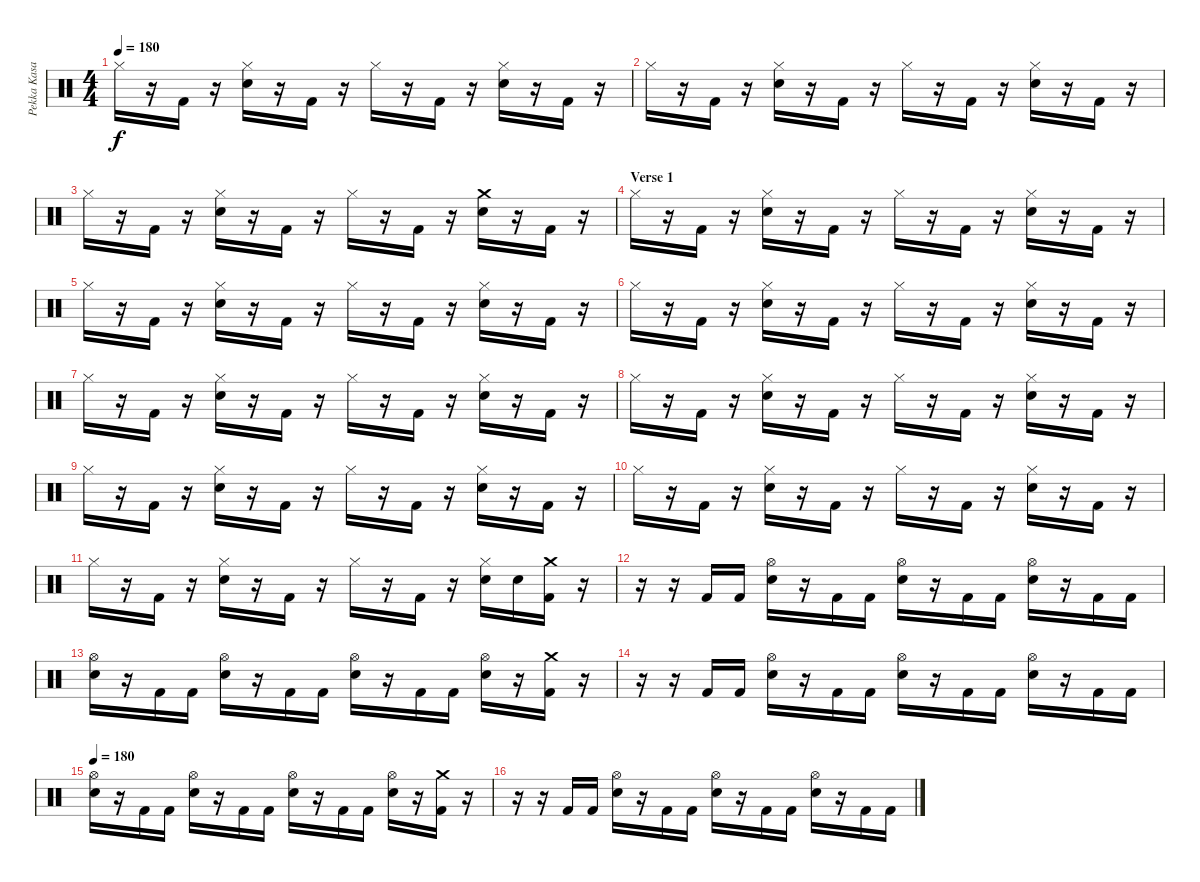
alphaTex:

\track ("Pekka Kasari" "Pekka Kasa") {instrument percussion}
\staff {score}
\articulation defaults
\ts (4 4)
\tempo 180
\clef neutral
\ks c "Hi-Hat (closed)".16{dy f}
r.16 "Kick (hit) 2".16 r.16 ("Hi-Hat (closed)" "Electric Snare (hit)").16 r.16 "Kick (hit) 2".16 r.16 "Hi-Hat (closed)".16 r.16 "Kick (hit) 2".16 r.16 ("Hi-Hat (closed)" "Electric Snare (hit)").16 r.16 "Kick (hit) 2".16 r.16 |
"Hi-Hat (closed)".16 r.16 "Kick (hit) 2".16 r.16 ("Hi-Hat (closed)" "Electric Snare (hit)").16 r.16 "Kick (hit) 2".16 r.16 "Hi-Hat (closed)".16 r.16 "Kick (hit) 2".16 r.16 ("Hi-Hat (closed)" "Electric Snare (hit)").16 r.16 "Kick (hit) 2".16 r.16 |
"Hi-Hat (closed)".16 r.16 "Kick (hit) 2".16 r.16 ("Hi-Hat (closed)" "Electric Snare (hit)").16 r.16 "Kick (hit) 2".16 r.16 "Hi-Hat (closed)".16 r.16 "Kick (hit) 2".16 r.16 ("Crash medium (hit)" "Electric Snare (hit)").16 r.16 "Kick (hit) 2".16 r.16 |
\section ("" "Verse 1")
"Hi-Hat (closed)".16 r.16 "Kick (hit) 2".16 r.16 ("Hi-Hat (closed)" "Electric Snare (hit)").16 r.16 "Kick (hit) 2".16 r.16 "Hi-Hat (closed)".16 r.16 "Kick (hit) 2".16 r.16 ("Hi-Hat (closed)" "Electric Snare (hit)").16 r.16 "Kick (hit) 2".16 r.16 |
"Hi-Hat (closed)".16 r.16 "Kick (hit) 2".16 r.16 ("Hi-Hat (closed)" "Electric Snare (hit)").16 r.16 "Kick (hit) 2".16 r.16 "Hi-Hat (closed)".16 r.16 "Kick (hit) 2".16 r.16 ("Hi-Hat (closed)" "Electric Snare (hit)").16 r.16 "Kick (hit) 2".16 r.16 |
"Hi-Hat (closed)".16 r.16 "Kick (hit) 2".16 r.16 ("Hi-Hat (closed)" "Electric Snare (hit)").16 r.16 "Kick (hit) 2".16 r.16 "Hi-Hat (closed)".16 r.16 "Kick (hit) 2".16 r.16 ("Hi-Hat (closed)" "Electric Snare (hit)").16 r.16 "Kick (hit) 2".16 r.16 |
"Hi-Hat (closed)".16 r.16 "Kick (hit) 2".16 r.16 ("Hi-Hat (closed)" "Electric Snare (hit)").16 r.16 "Kick (hit) 2".16 r.16 "Hi-Hat (closed)".16 r.16 "Kick (hit) 2".16 r.16 ("Hi-Hat (closed)" "Electric Snare (hit)").16 r.16 "Kick (hit) 2".16 r.16 |
"Hi-Hat (closed)".16 r.16 "Kick (hit) 2".16 r.16 ("Hi-Hat (closed)" "Electric Snare (hit)").16 r.16 "Kick (hit) 2".16 r.16 "Hi-Hat (closed)".16 r.16 "Kick (hit) 2".16 r.16 ("Hi-Hat (closed)" "Electric Snare (hit)").16 r.16 "Kick (hit) 2".16 r.16 |
"Hi-Hat (closed)".16 r.16 "Kick (hit) 2".16 r.16 ("Hi-Hat (closed)" "Electric Snare (hit)").16 r.16 "Kick (hit) 2".16 r.16 "Hi-Hat (closed)".16 r.16 "Kick (hit) 2".16 r.16 ("Hi-Hat (closed)" "Electric Snare (hit)").16 r.16 "Kick (hit) 2".16 r.16 |
"Hi-Hat (closed)".16 r.16 "Kick (hit) 2".16 r.16 ("Hi-Hat (closed)" "Electric Snare (hit)").16 r.16 "Kick (hit) 2".16 r.16 "Hi-Hat (closed)".16 r.16 "Kick (hit) 2".16 r.16 ("Hi-Hat (closed)" "Electric Snare (hit)").16 r.16 "Kick (hit) 2".16 r.16 |
"Hi-Hat (closed)".16 r.16 "Kick (hit) 2".16 r.16 ("Hi-Hat (closed)" "Electric Snare (hit)").16 r.16 "Kick (hit) 2".16 r.16 "Hi-Hat (closed)".16 r.16 "Kick (hit) 2".16 r.16 ("Hi-Hat (closed)" "Electric Snare (hit)").16 "Electric Snare (hit)".16 ("Crash medium (hit)" "Kick (hit) 2").16 r.16 |
r.16 r.16 "Kick (hit) 2".16 "Kick (hit) 2".16 ("Hi-Hat (open)" "Electric Snare (hit)").16 r.16 "Kick (hit) 2".16 "Kick (hit) 2".16 ("Hi-Hat (open)" "Electric Snare (hit)").16 r.16 "Kick (hit) 2".16 "Kick (hit) 2".16 ("Hi-Hat (open)" "Electric Snare (hit)").16 r.16 "Kick (hit) 2".16 "Kick (hit) 2".16 |
("Hi-Hat (open)" "Electric Snare (hit)").16 r.16 "Kick (hit) 2".16 "Kick (hit) 2".16 ("Hi-Hat (open)" "Electric Snare (hit)").16 r.16 "Kick (hit) 2".16 "Kick (hit) 2".16 ("Hi-Hat (open)" "Electric Snare (hit)").16 r.16 "Kick (hit) 2".16 "Kick (hit) 2".16 ("Hi-Hat (open)" "Electric Snare (hit)").16 r.16 ("Crash medium (hit)" "Kick (hit) 2").16 r.16 |
r.16 r.16 "Kick (hit) 2".16 "Kick (hit) 2".16 ("Hi-Hat (open)" "Electric Snare (hit)").16 r.16 "Kick (hit) 2".16 "Kick (hit) 2".16 ("Hi-Hat (open)" "Electric Snare (hit)").16 r.16 "Kick (hit) 2".16 "Kick (hit) 2".16 ("Hi-Hat (open)" "Electric Snare (hit)").16 r.16 "Kick (hit) 2".16 "Kick (hit) 2".16 |
\tempo 180
("Hi-Hat (open)" "Electric Snare (hit)").16 r.16 "Kick (hit) 2".16 "Kick (hit) 2".16 ("Hi-Hat (open)" "Electric Snare (hit)").16 r.16 "Kick (hit) 2".16 "Kick (hit) 2".16 ("Hi-Hat (open)" "Electric Snare (hit)").16 r.16 "Kick (hit) 2".16 "Kick (hit) 2".16 ("Hi-Hat (open)" "Electric Snare (hit)").16 r.16 ("Crash medium (hit)" "Kick (hit) 2").16 r.16 |
r.16 r.16 "Kick (hit) 2".16 "Kick (hit) 2".16 ("Hi-Hat (open)" "Electric Snare (hit)").16 r.16 "Kick (hit) 2".16 "Kick (hit) 2".16 ("Hi-Hat (open)" "Electric Snare (hit)").16 r.16 "Kick (hit) 2".16 "Kick (hit) 2".16 ("Hi-Hat (open)" "Electric Snare (hit)").16 r.16 "Kick (hit) 2".16 "Kick (hit) 2".16
